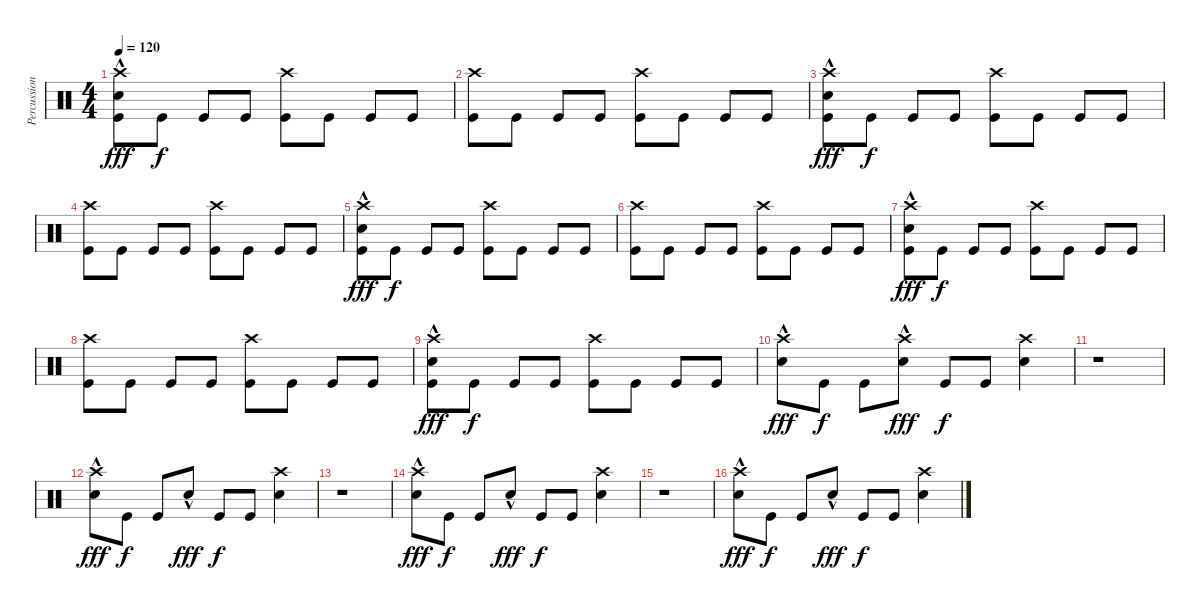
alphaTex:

\track ("Percussion" "Percussion") {instrument percussion}
\staff {score}
\articulation defaults
\ts (4 4)
\tempo 120
\clef neutral
\ks c
("Crash high (hit)" "Electric Snare (hit)"{hac} "Kick (hit)").8{dy fff} "Kick (hit)".8{dy f} "Kick (hit)".8 "Kick (hit)".8 ("Crash high (hit)" "Kick (hit)").8 "Kick (hit)".8 "Kick (hit)".8 "Kick (hit)".8 |
("Crash high (hit)" "Kick (hit)").8 "Kick (hit)".8 "Kick (hit)".8 "Kick (hit)".8 ("Crash high (hit)" "Kick (hit)").8 "Kick (hit)".8 "Kick (hit)".8 "Kick (hit)".8 |
("Crash high (hit)" "Electric Snare (hit)"{hac} "Kick (hit)").8{dy fff} "Kick (hit)".8{dy f} "Kick (hit)".8 "Kick (hit)".8 ("Crash high (hit)" "Kick (hit)").8 "Kick (hit)".8 "Kick (hit)".8 "Kick (hit)".8 |
("Crash high (hit)" "Kick (hit)").8 "Kick (hit)".8 "Kick (hit)".8 "Kick (hit)".8 ("Crash high (hit)" "Kick (hit)").8 "Kick (hit)".8 "Kick (hit)".8 "Kick (hit)".8 |
("Crash high (hit)" "Electric Snare (hit)"{hac} "Kick (hit)").8{dy fff} "Kick (hit)".8{dy f} "Kick (hit)".8 "Kick (hit)".8 ("Crash high (hit)" "Kick (hit)").8 "Kick (hit)".8 "Kick (hit)".8 "Kick (hit)".8 |
("Crash high (hit)" "Kick (hit)").8 "Kick (hit)".8 "Kick (hit)".8 "Kick (hit)".8 ("Crash high (hit)" "Kick (hit)").8 "Kick (hit)".8 "Kick (hit)".8 "Kick (hit)".8 |
("Crash high (hit)" "Electric Snare (hit)"{hac} "Kick (hit)").8{dy fff} "Kick (hit)".8{dy f} "Kick (hit)".8 "Kick (hit)".8 ("Crash high (hit)" "Kick (hit)").8 "Kick (hit)".8 "Kick (hit)".8 "Kick (hit)".8 |
("Crash high (hit)" "Kick (hit)").8 "Kick (hit)".8 "Kick (hit)".8 "Kick (hit)".8 ("Crash high (hit)" "Kick (hit)").8 "Kick (hit)".8 "Kick (hit)".8 "Kick (hit)".8 |
("Crash high (hit)" "Electric Snare (hit)"{hac} "Kick (hit)").8{dy fff} "Kick (hit)".8{dy f} "Kick (hit)".8 "Kick (hit)".8 ("Crash high (hit)" "Kick (hit)").8 "Kick (hit)".8 "Kick (hit)".8 "Kick (hit)".8 |
("Crash high (hit)" "Electric Snare (hit)"{hac}).8{dy fff} "Kick (hit)".8{dy f} "Kick (hit)".8 ("Crash high (hit)" "Electric Snare (hit)"{hac}).8{dy fff} "Kick (hit)".8{dy f} "Kick (hit)".8 ("Crash high (hit)" "Electric Snare (hit)").4 |
r.1 |
("Crash high (hit)" "Electric Snare (hit)"{hac}).8{dy fff} "Kick (hit)".8{dy f} "Kick (hit)".8 "Electric Snare (hit)"{hac}.8{dy fff} "Kick (hit)".8{dy f} "Kick (hit)".8 ("Crash high (hit)" "Electric Snare (hit)").4 |
r.1 |
("Crash high (hit)" "Electric Snare (hit)"{hac}).8{dy fff} "Kick (hit)".8{dy f} "Kick (hit)".8 "Electric Snare (hit)"{hac}.8{dy fff} "Kick (hit)".8{dy f} "Kick (hit)".8 ("Crash high (hit)" "Electric Snare (hit)").4 |
r.1 |
("Crash high (hit)" "Electric Snare (hit)"{hac}).8{dy fff} "Kick (hit)".8{dy f} "Kick (hit)".8 "Electric Snare (hit)"{hac}.8{dy fff} "Kick (hit)".8{dy f} "Kick (hit)".8 ("Crash high (hit)" "Electric Snare (hit)").4
